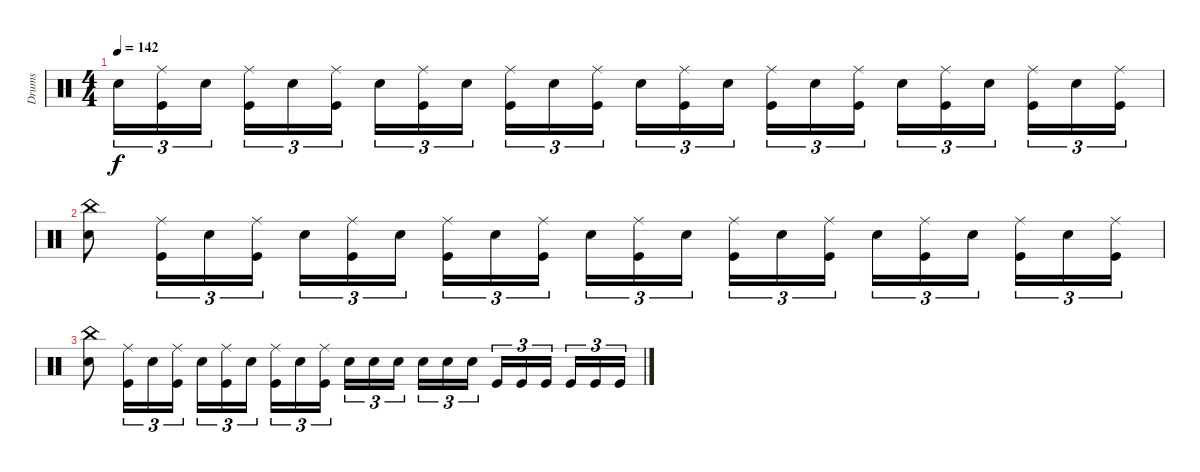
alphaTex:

\track ("Drums" "Drums") {instrument percussion}
\staff
\articulation defaults
\ts (4 4)
\tempo 142
\clef neutral
\ks c "Electric Snare (hit)".16{tu (3 2) dy f}
("Ride (middle)" "Kick (hit)").16{tu (3 2)} "Electric Snare (hit)".16{tu (3 2) beam splitsecondary} ("Ride (middle)" "Kick (hit)").16{tu (3 2)} "Electric Snare (hit)".16{tu (3 2)} ("Ride (middle)" "Kick (hit)").16{tu (3 2)} "Electric Snare (hit)".16{tu (3 2)} ("Ride (middle)" "Kick (hit)").16{tu (3 2)} "Electric Snare (hit)".16{tu (3 2) beam splitsecondary} ("Ride (middle)" "Kick (hit)").16{tu (3 2)} "Electric Snare (hit)".16{tu (3 2)} ("Ride (middle)" "Kick (hit)").16{tu (3 2)} "Electric Snare (hit)".16{tu (3 2)} ("Ride (middle)" "Kick (hit)").16{tu (3 2)} "Electric Snare (hit)".16{tu (3 2) beam splitsecondary} ("Ride (middle)" "Kick (hit)").16{tu (3 2)} "Electric Snare (hit)".16{tu (3 2)} ("Ride (middle)" "Kick (hit)").16{tu (3 2)} "Electric Snare (hit)".16{tu (3 2)} ("Ride (middle)" "Kick (hit)").16{tu (3 2)} "Electric Snare (hit)".16{tu (3 2) beam splitsecondary} ("Ride (middle)" "Kick (hit)").16{tu (3 2)} "Electric Snare (hit)".16{tu (3 2)} ("Ride (middle)" "Kick (hit)").16{tu (3 2)} |
("China (hit)" "Electric Snare (hit)").8 ("Ride (middle)" "Kick (hit)").16{tu (3 2)} "Electric Snare (hit)".16{tu (3 2)} ("Ride (middle)" "Kick (hit)").16{tu (3 2)} "Electric Snare (hit)".16{tu (3 2)} ("Ride (middle)" "Kick (hit)").16{tu (3 2)} "Electric Snare (hit)".16{tu (3 2) beam splitsecondary} ("Ride (middle)" "Kick (hit)").16{tu (3 2)} "Electric Snare (hit)".16{tu (3 2)} ("Ride (middle)" "Kick (hit)").16{tu (3 2)} "Electric Snare (hit)".16{tu (3 2)} ("Ride (middle)" "Kick (hit)").16{tu (3 2)} "Electric Snare (hit)".16{tu (3 2) beam splitsecondary} ("Ride (middle)" "Kick (hit)").16{tu (3 2)} "Electric Snare (hit)".16{tu (3 2)} ("Ride (middle)" "Kick (hit)").16{tu (3 2)} "Electric Snare (hit)".16{tu (3 2)} ("Ride (middle)" "Kick (hit)").16{tu (3 2)} "Electric Snare (hit)".16{tu (3 2) beam splitsecondary} ("Ride (middle)" "Kick (hit)").16{tu (3 2)} "Electric Snare (hit)".16{tu (3 2)} ("Ride (middle)" "Kick (hit)").16{tu (3 2)} |
("China (hit)" "Electric Snare (hit)").8 ("Ride (middle)" "Kick (hit)").16{tu (3 2)} "Electric Snare (hit)".16{tu (3 2)} ("Ride (middle)" "Kick (hit)").16{tu (3 2)} "Electric Snare (hit)".16{tu (3 2)} ("Ride (middle)" "Kick (hit)").16{tu (3 2)} "Electric Snare (hit)".16{tu (3 2) beam splitsecondary} ("Ride (middle)" "Kick (hit)").16{tu (3 2)} "Electric Snare (hit)".16{tu (3 2)} ("Ride (middle)" "Kick (hit)").16{tu (3 2)} "Electric Snare (hit)".16{tu (3 2)} "Electric Snare (hit)".16{tu (3 2)} "Electric Snare (hit)".16{tu (3 2) beam splitsecondary} "Electric Snare (hit)".16{tu (3 2)} "Electric Snare (hit)".16{tu (3 2)} "Electric Snare (hit)".16{tu (3 2)} "Kick (hit)".16{tu (3 2)} "Kick (hit)".16{tu (3 2)} "Kick (hit)".16{tu (3 2) beam splitsecondary} "Kick (hit)".16{tu (3 2)} "Kick (hit)".16{tu (3 2)} "Kick (hit)".16{tu (3 2)}
